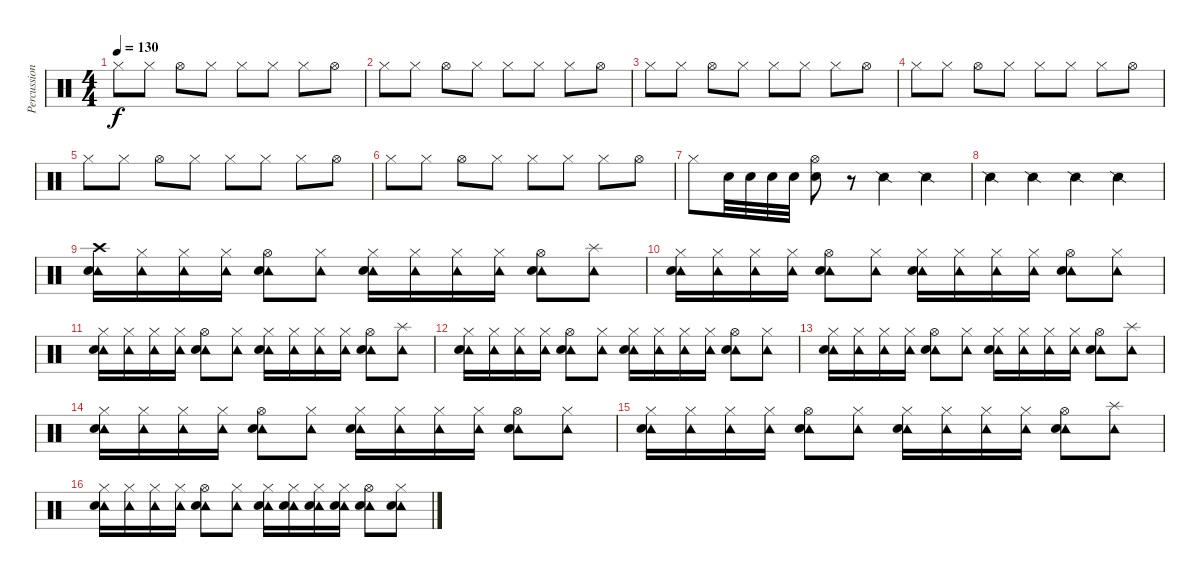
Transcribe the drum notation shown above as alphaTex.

\track ("Percussion" "Percussion") {instrument percussion}
\staff {score}
\articulation defaults
\ts (4 4)
\tempo 130
\clef neutral
\ks c "Hi-Hat (closed)".8{dy f} "Hi-Hat (closed)".8 "Hi-Hat (open)".8 "Hi-Hat (closed)".8 "Hi-Hat (closed)".8 "Hi-Hat (closed)".8 "Hi-Hat (closed)".8 "Hi-Hat (open)".8
|
"Hi-Hat (closed)".8 "Hi-Hat (closed)".8 "Hi-Hat (open)".8 "Hi-Hat (closed)".8 "Hi-Hat (closed)".8 "Hi-Hat (closed)".8 "Hi-Hat (closed)".8 "Hi-Hat (open)".8 |
"Hi-Hat (closed)".8 "Hi-Hat (closed)".8 "Hi-Hat (open)".8 "Hi-Hat (closed)".8 "Hi-Hat (closed)".8 "Hi-Hat (closed)".8 "Hi-Hat (closed)".8 "Hi-Hat (open)".8 |
"Hi-Hat (closed)".8 "Hi-Hat (closed)".8 "Hi-Hat (open)".8 "Hi-Hat (closed)".8 "Hi-Hat (closed)".8 "Hi-Hat (closed)".8 "Hi-Hat (closed)".8 "Hi-Hat (open)".8 |
"Hi-Hat (closed)".8 "Hi-Hat (closed)".8 "Hi-Hat (open)".8 "Hi-Hat (closed)".8 "Hi-Hat (closed)".8 "Hi-Hat (closed)".8 "Hi-Hat (closed)".8 "Hi-Hat (open)".8 |
"Hi-Hat (closed)".8 "Hi-Hat (closed)".8 "Hi-Hat (open)".8 "Hi-Hat (closed)".8 "Hi-Hat (closed)".8 "Hi-Hat (closed)".8 "Hi-Hat (closed)".8 "Hi-Hat (open)".8 |
"Hi-Hat (closed)".8 "Snare (hit) 2".32 "Snare (hit) 2".32 "Snare (hit) 2".32 "Snare (hit) 2".32 ("Snare (hit) 2" "Hi-Hat (open)").8 r.8 "Snare (side stick) 2".4 "Snare (side stick) 2".4 |
"Snare (side stick) 2".4 "Snare (side stick) 2".4 "Snare (side stick) 2".4 "Snare (side stick) 2".4 |
("Crash high (hit)" "Tambourine (hit)" "Electric Snare (hit)").16{volume 16} ("Hi-Hat (closed)" "Tambourine (hit)").16 ("Hi-Hat (closed)" "Tambourine (hit)").16 ("Hi-Hat (closed)" "Tambourine (hit)").16 ("Hi-Hat (open)" "Tambourine (hit)" "Electric Snare (hit)").8 ("Hi-Hat (closed)" "Tambourine (hit)").8 ("Hi-Hat (closed)" "Tambourine (hit)" "Electric Snare (hit)").16 ("Hi-Hat (closed)" "Tambourine (hit)").16 ("Hi-Hat (closed)" "Tambourine (hit)").16 ("Hi-Hat (closed)" "Tambourine (hit)").16 ("Hi-Hat (open)" "Tambourine (hit)" "Electric Snare (hit)").8 ("Splash (hit)" "Tambourine (hit)").8 |
("Hi-Hat (closed)" "Tambourine (hit)" "Electric Snare (hit)").16 ("Hi-Hat (closed)" "Tambourine (hit)").16 ("Hi-Hat (closed)" "Tambourine (hit)").16 ("Hi-Hat (closed)" "Tambourine (hit)").16 ("Hi-Hat (open)" "Tambourine (hit)" "Electric Snare (hit)").8 ("Hi-Hat (closed)" "Tambourine (hit)").8 ("Hi-Hat (closed)" "Tambourine (hit)" "Electric Snare (hit)").16 ("Hi-Hat (closed)" "Tambourine (hit)").16 ("Hi-Hat (closed)" "Tambourine (hit)").16 ("Hi-Hat (closed)" "Tambourine (hit)").16 ("Hi-Hat (open)" "Tambourine (hit)" "Electric Snare (hit)").8 ("Hi-Hat (closed)" "Tambourine (hit)").8 |
("Hi-Hat (closed)" "Tambourine (hit)" "Electric Snare (hit)").16{volume 16} ("Hi-Hat (closed)" "Tambourine (hit)").16 ("Hi-Hat (closed)" "Tambourine (hit)").16 ("Hi-Hat (closed)" "Tambourine (hit)").16 ("Hi-Hat (open)" "Tambourine (hit)" "Electric Snare (hit)").8 ("Hi-Hat (closed)" "Tambourine (hit)").8 ("Hi-Hat (closed)" "Tambourine (hit)" "Electric Snare (hit)").16 ("Hi-Hat (closed)" "Tambourine (hit)").16 ("Hi-Hat (closed)" "Tambourine (hit)").16 ("Hi-Hat (closed)" "Tambourine (hit)").16 ("Hi-Hat (open)" "Tambourine (hit)" "Electric Snare (hit)").8 ("Splash (hit)" "Tambourine (hit)").8 |
("Hi-Hat (closed)" "Tambourine (hit)" "Electric Snare (hit)").16 ("Hi-Hat (closed)" "Tambourine (hit)").16 ("Hi-Hat (closed)" "Tambourine (hit)").16 ("Hi-Hat (closed)" "Tambourine (hit)").16 ("Hi-Hat (open)" "Tambourine (hit)" "Electric Snare (hit)").8 ("Hi-Hat (closed)" "Tambourine (hit)").8 ("Hi-Hat (closed)" "Tambourine (hit)" "Electric Snare (hit)").16 ("Hi-Hat (closed)" "Tambourine (hit)").16 ("Hi-Hat (closed)" "Tambourine (hit)").16 ("Hi-Hat (closed)" "Tambourine (hit)").16 ("Hi-Hat (open)" "Tambourine (hit)" "Electric Snare (hit)").8 ("Hi-Hat (closed)" "Tambourine (hit)").8 |
("Hi-Hat (closed)" "Tambourine (hit)" "Electric Snare (hit)").16{volume 16} ("Hi-Hat (closed)" "Tambourine (hit)").16 ("Hi-Hat (closed)" "Tambourine (hit)").16 ("Hi-Hat (closed)" "Tambourine (hit)").16 ("Hi-Hat (open)" "Tambourine (hit)" "Electric Snare (hit)").8 ("Hi-Hat (closed)" "Tambourine (hit)").8 ("Hi-Hat (closed)" "Tambourine (hit)" "Electric Snare (hit)").16 ("Hi-Hat (closed)" "Tambourine (hit)").16 ("Hi-Hat (closed)" "Tambourine (hit)").16 ("Hi-Hat (closed)" "Tambourine (hit)").16 ("Hi-Hat (open)" "Tambourine (hit)" "Electric Snare (hit)").8 ("Splash (hit)" "Tambourine (hit)").8 |
("Hi-Hat (closed)" "Tambourine (hit)" "Electric Snare (hit)").16 ("Hi-Hat (closed)" "Tambourine (hit)").16 ("Hi-Hat (closed)" "Tambourine (hit)").16 ("Hi-Hat (closed)" "Tambourine (hit)").16 ("Hi-Hat (open)" "Tambourine (hit)" "Electric Snare (hit)").8 ("Hi-Hat (closed)" "Tambourine (hit)").8 ("Hi-Hat (closed)" "Tambourine (hit)" "Electric Snare (hit)").16 ("Hi-Hat (closed)" "Tambourine (hit)").16 ("Hi-Hat (closed)" "Tambourine (hit)").16 ("Hi-Hat (closed)" "Tambourine (hit)").16 ("Hi-Hat (open)" "Tambourine (hit)" "Electric Snare (hit)").8 ("Hi-Hat (closed)" "Tambourine (hit)").8 |
("Hi-Hat (closed)" "Tambourine (hit)" "Electric Snare (hit)").16 ("Hi-Hat (closed)" "Tambourine (hit)").16 ("Hi-Hat (closed)" "Tambourine (hit)").16 ("Hi-Hat (closed)" "Tambourine (hit)").16 ("Hi-Hat (open)" "Tambourine (hit)" "Electric Snare (hit)").8 ("Hi-Hat (closed)" "Tambourine (hit)").8 ("Hi-Hat (closed)" "Tambourine (hit)" "Electric Snare (hit)").16 ("Hi-Hat (closed)" "Tambourine (hit)").16 ("Hi-Hat (closed)" "Tambourine (hit)").16 ("Hi-Hat (closed)" "Tambourine (hit)").16 ("Hi-Hat (open)" "Tambourine (hit)" "Electric Snare (hit)").8 ("Splash (hit)" "Tambourine (hit)").8 |
("Hi-Hat (closed)" "Tambourine (hit)" "Electric Snare (hit)").16 ("Hi-Hat (closed)" "Tambourine (hit)").16 ("Hi-Hat (closed)" "Tambourine (hit)").16 ("Hi-Hat (closed)" "Tambourine (hit)").16 ("Hi-Hat (open)" "Tambourine (hit)" "Electric Snare (hit)").8 ("Hi-Hat (closed)" "Tambourine (hit)").8 ("Hi-Hat (closed)" "Tambourine (hit)" "Electric Snare (hit)").16 ("Hi-Hat (closed)" "Tambourine (hit)" "Electric Snare (hit)").16 ("Hi-Hat (closed)" "Tambourine (hit)" "Electric Snare (hit)").16 ("Hi-Hat (closed)" "Tambourine (hit)" "Electric Snare (hit)").16 ("Hi-Hat (open)" "Tambourine (hit)" "Electric Snare (hit)").8 ("Hi-Hat (closed)" "Tambourine (hit)" "Electric Snare (hit)").8
